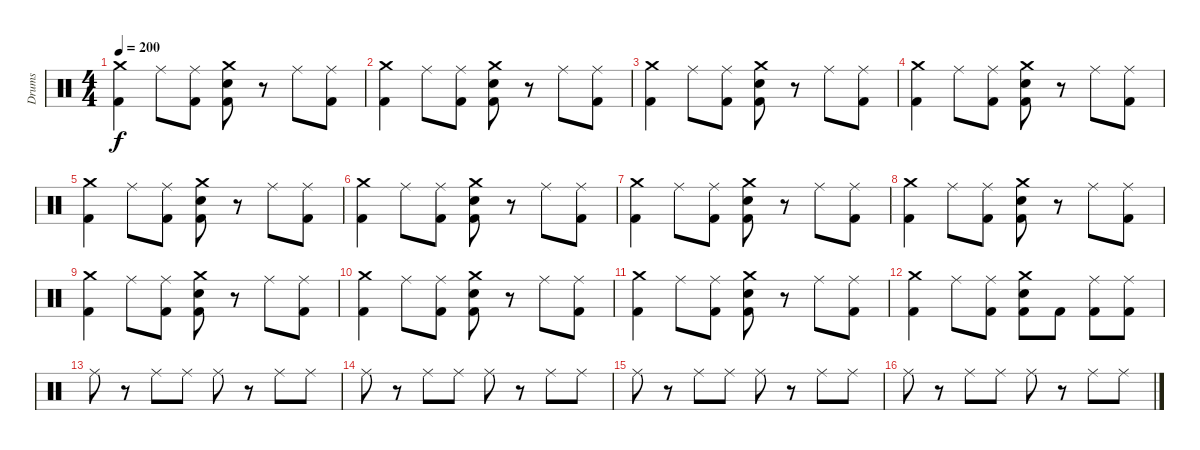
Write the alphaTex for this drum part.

\track ("Drums" "Drums") {instrument percussion}
\staff {score}
\articulation defaults
\ts (4 4)
\tempo 200
\clef neutral
\ks c
("Crash medium (hit)" "Kick (hit) 2").4{dy f} "Ride (middle)".8 ("Ride (middle)" "Kick (hit) 2").8 ("Crash medium (hit)" "Electric Snare (hit)" "Kick (hit) 2").8 r.8 "Ride (middle)".8 ("Ride (middle)" "Kick (hit) 2").8 |
("Crash medium (hit)" "Kick (hit) 2").4 "Ride (middle)".8 ("Ride (middle)" "Kick (hit) 2").8 ("Crash medium (hit)" "Electric Snare (hit)" "Kick (hit) 2").8 r.8 "Ride (middle)".8 ("Ride (middle)" "Kick (hit) 2").8 |
("Crash medium (hit)" "Kick (hit) 2").4 "Ride (middle)".8 ("Ride (middle)" "Kick (hit) 2").8 ("Crash medium (hit)" "Electric Snare (hit)" "Kick (hit) 2").8 r.8 "Ride (middle)".8 ("Ride (middle)" "Kick (hit) 2").8 |
("Crash medium (hit)" "Kick (hit) 2").4 "Ride (middle)".8 ("Ride (middle)" "Kick (hit) 2").8 ("Crash medium (hit)" "Electric Snare (hit)" "Kick (hit) 2").8 r.8 "Ride (middle)".8 ("Ride (middle)" "Kick (hit) 2").8 |
("Crash medium (hit)" "Kick (hit) 2").4 "Ride (middle)".8 ("Ride (middle)" "Kick (hit) 2").8 ("Crash medium (hit)" "Electric Snare (hit)" "Kick (hit) 2").8 r.8 "Ride (middle)".8 ("Ride (middle)" "Kick (hit) 2").8 |
("Crash medium (hit)" "Kick (hit) 2").4 "Ride (middle)".8 ("Ride (middle)" "Kick (hit) 2").8 ("Crash medium (hit)" "Electric Snare (hit)" "Kick (hit) 2").8 r.8 "Ride (middle)".8 ("Ride (middle)" "Kick (hit) 2").8 |
("Crash medium (hit)" "Kick (hit) 2").4 "Ride (middle)".8 ("Ride (middle)" "Kick (hit) 2").8 ("Crash medium (hit)" "Electric Snare (hit)" "Kick (hit) 2").8 r.8 "Ride (middle)".8 ("Ride (middle)" "Kick (hit) 2").8 |
("Crash medium (hit)" "Kick (hit) 2").4 "Ride (middle)".8 ("Ride (middle)" "Kick (hit) 2").8 ("Crash medium (hit)" "Electric Snare (hit)" "Kick (hit) 2").8 r.8 "Ride (middle)".8 ("Ride (middle)" "Kick (hit) 2").8 |
("Crash medium (hit)" "Kick (hit) 2").4 "Ride (middle)".8 ("Ride (middle)" "Kick (hit) 2").8 ("Crash medium (hit)" "Electric Snare (hit)" "Kick (hit) 2").8 r.8 "Ride (middle)".8 ("Ride (middle)" "Kick (hit) 2").8 |
("Crash medium (hit)" "Kick (hit) 2").4 "Ride (middle)".8 ("Ride (middle)" "Kick (hit) 2").8 ("Crash medium (hit)" "Electric Snare (hit)" "Kick (hit) 2").8 r.8 "Ride (middle)".8 ("Ride (middle)" "Kick (hit) 2").8 |
("Crash medium (hit)" "Kick (hit) 2").4 "Ride (middle)".8 ("Ride (middle)" "Kick (hit) 2").8 ("Crash medium (hit)" "Electric Snare (hit)" "Kick (hit) 2").8 r.8 "Ride (middle)".8 ("Ride (middle)" "Kick (hit) 2").8 |
("Crash medium (hit)" "Kick (hit) 2").4 "Ride (middle)".8 ("Ride (middle)" "Kick (hit) 2").8 ("Crash medium (hit)" "Electric Snare (hit)" "Kick (hit) 2").8 "Kick (hit) 2".8 ("Ride (middle)" "Kick (hit) 2").8 ("Ride (middle)" "Kick (hit) 2").8 |
"Ride (middle)".8 r.8 "Ride (middle)".8 "Ride (middle)".8 "Ride (middle)".8 r.8 "Ride (middle)".8 "Ride (middle)".8 |
"Ride (middle)".8 r.8 "Ride (middle)".8 "Ride (middle)".8 "Ride (middle)".8 r.8 "Ride (middle)".8 "Ride (middle)".8 |
"Ride (middle)".8 r.8 "Ride (middle)".8 "Ride (middle)".8 "Ride (middle)".8 r.8 "Ride (middle)".8 "Ride (middle)".8 |
"Ride (middle)".8 r.8 "Ride (middle)".8 "Ride (middle)".8 "Ride (middle)".8 r.8 "Ride (middle)".8 "Ride (middle)".8
